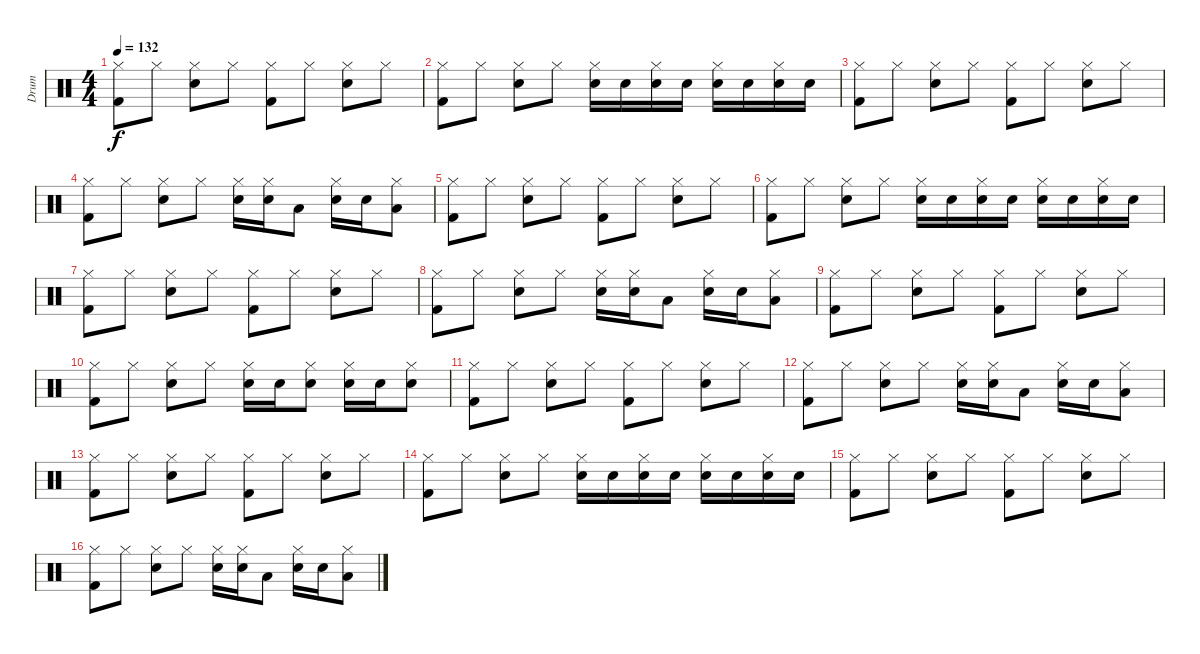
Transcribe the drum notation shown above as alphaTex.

\track ("Drum" "Drum") {instrument percussion}
\staff {score}
\articulation defaults
\ts (4 4)
\tempo 132
\clef neutral
\ks c
("Hi-Hat (closed)" "Kick (hit) 2").8{dy f} "Hi-Hat (closed)".8 ("Hi-Hat (closed)" "Electric Snare (hit)").8 "Hi-Hat (closed)".8 ("Hi-Hat (closed)" "Kick (hit) 2").8 "Hi-Hat (closed)".8 ("Hi-Hat (closed)" "Electric Snare (hit)").8 "Hi-Hat (closed)".8 |
("Hi-Hat (closed)" "Kick (hit) 2").8 "Hi-Hat (closed)".8 ("Hi-Hat (closed)" "Electric Snare (hit)").8 "Hi-Hat (closed)".8 ("Hi-Hat (closed)" "Electric Snare (hit)").16 "Electric Snare (hit)".16 ("Hi-Hat (closed)" "Electric Snare (hit)").16 "Electric Snare (hit)".16 ("Hi-Hat (closed)" "Electric Snare (hit)").16 "Electric Snare (hit)".16 ("Hi-Hat (closed)" "Electric Snare (hit)").16 "Electric Snare (hit)".16 |
("Hi-Hat (closed)" "Kick (hit) 2").8 "Hi-Hat (closed)".8 ("Hi-Hat (closed)" "Electric Snare (hit)").8 "Hi-Hat (closed)".8 ("Hi-Hat (closed)" "Kick (hit) 2").8 "Hi-Hat (closed)".8 ("Hi-Hat (closed)" "Electric Snare (hit)").8 "Hi-Hat (closed)".8 |
("Hi-Hat (closed)" "Kick (hit) 2").8 "Hi-Hat (closed)".8 ("Hi-Hat (closed)" "Electric Snare (hit)").8 "Hi-Hat (closed)".8 ("Hi-Hat (closed)" "Electric Snare (hit)").16 ("Hi-Hat (closed)" "Electric Snare (hit)").16 "Low Floor Tom (hit)".8 ("Hi-Hat (closed)" "Electric Snare (hit)").16 "Electric Snare (hit)".16 ("Hi-Hat (closed)" "Low Tom (hit)").8 |
("Hi-Hat (closed)" "Kick (hit) 2").8 "Hi-Hat (closed)".8 ("Hi-Hat (closed)" "Electric Snare (hit)").8 "Hi-Hat (closed)".8 ("Hi-Hat (closed)" "Kick (hit) 2").8 "Hi-Hat (closed)".8 ("Hi-Hat (closed)" "Electric Snare (hit)").8 "Hi-Hat (closed)".8 |
("Hi-Hat (closed)" "Kick (hit) 2").8 "Hi-Hat (closed)".8 ("Hi-Hat (closed)" "Electric Snare (hit)").8 "Hi-Hat (closed)".8 ("Hi-Hat (closed)" "Electric Snare (hit)").16 "Electric Snare (hit)".16 ("Hi-Hat (closed)" "Electric Snare (hit)").16 "Electric Snare (hit)".16 ("Hi-Hat (closed)" "Electric Snare (hit)").16 "Electric Snare (hit)".16 ("Hi-Hat (closed)" "Electric Snare (hit)").16 "Electric Snare (hit)".16 |
("Hi-Hat (closed)" "Kick (hit) 2").8 "Hi-Hat (closed)".8 ("Hi-Hat (closed)" "Electric Snare (hit)").8 "Hi-Hat (closed)".8 ("Hi-Hat (closed)" "Kick (hit) 2").8 "Hi-Hat (closed)".8 ("Hi-Hat (closed)" "Electric Snare (hit)").8 "Hi-Hat (closed)".8 |
("Hi-Hat (closed)" "Kick (hit) 2").8 "Hi-Hat (closed)".8 ("Hi-Hat (closed)" "Electric Snare (hit)").8 "Hi-Hat (closed)".8 ("Hi-Hat (closed)" "Electric Snare (hit)").16 ("Hi-Hat (closed)" "Electric Snare (hit)").16 "Low Floor Tom (hit)".8 ("Hi-Hat (closed)" "Electric Snare (hit)").16 "Electric Snare (hit)".16 ("Hi-Hat (closed)" "Low Tom (hit)").8 |
("Hi-Hat (closed)" "Kick (hit) 2").8 "Hi-Hat (closed)".8 ("Hi-Hat (closed)" "Electric Snare (hit)").8 "Hi-Hat (closed)".8 ("Hi-Hat (closed)" "Kick (hit) 2").8 "Hi-Hat (closed)".8 ("Hi-Hat (closed)" "Electric Snare (hit)").8 "Hi-Hat (closed)".8 |
("Hi-Hat (closed)" "Kick (hit) 2").8 "Hi-Hat (closed)".8 ("Hi-Hat (closed)" "Electric Snare (hit)").8 "Hi-Hat (closed)".8 ("Hi-Hat (closed)" "Electric Snare (hit)").16 "Electric Snare (hit)".16 ("Hi-Hat (closed)" "Electric Snare (hit)").8 ("Hi-Hat (closed)" "Electric Snare (hit)").16 "Electric Snare (hit)".16 ("Hi-Hat (closed)" "Electric Snare (hit)").8 |
("Hi-Hat (closed)" "Kick (hit) 2").8 "Hi-Hat (closed)".8 ("Hi-Hat (closed)" "Electric Snare (hit)").8 "Hi-Hat (closed)".8 ("Hi-Hat (closed)" "Kick (hit) 2").8 "Hi-Hat (closed)".8 ("Hi-Hat (closed)" "Electric Snare (hit)").8 "Hi-Hat (closed)".8 |
("Hi-Hat (closed)" "Kick (hit) 2").8 "Hi-Hat (closed)".8 ("Hi-Hat (closed)" "Electric Snare (hit)").8 "Hi-Hat (closed)".8 ("Hi-Hat (closed)" "Electric Snare (hit)").16 ("Hi-Hat (closed)" "Electric Snare (hit)").16 "Low Floor Tom (hit)".8 ("Hi-Hat (closed)" "Electric Snare (hit)").16 "Electric Snare (hit)".16 ("Hi-Hat (closed)" "Low Tom (hit)").8 |
("Hi-Hat (closed)" "Kick (hit) 2").8 "Hi-Hat (closed)".8 ("Hi-Hat (closed)" "Electric Snare (hit)").8 "Hi-Hat (closed)".8 ("Hi-Hat (closed)" "Kick (hit) 2").8 "Hi-Hat (closed)".8 ("Hi-Hat (closed)" "Electric Snare (hit)").8 "Hi-Hat (closed)".8 |
("Hi-Hat (closed)" "Kick (hit) 2").8 "Hi-Hat (closed)".8 ("Hi-Hat (closed)" "Electric Snare (hit)").8 "Hi-Hat (closed)".8 ("Hi-Hat (closed)" "Electric Snare (hit)").16 "Electric Snare (hit)".16 ("Hi-Hat (closed)" "Electric Snare (hit)").16 "Electric Snare (hit)".16 ("Hi-Hat (closed)" "Electric Snare (hit)").16 "Electric Snare (hit)".16 ("Hi-Hat (closed)" "Electric Snare (hit)").16 "Electric Snare (hit)".16 |
("Hi-Hat (closed)" "Kick (hit) 2").8 "Hi-Hat (closed)".8 ("Hi-Hat (closed)" "Electric Snare (hit)").8 "Hi-Hat (closed)".8 ("Hi-Hat (closed)" "Kick (hit) 2").8 "Hi-Hat (closed)".8 ("Hi-Hat (closed)" "Electric Snare (hit)").8 "Hi-Hat (closed)".8 |
("Hi-Hat (closed)" "Kick (hit) 2").8 "Hi-Hat (closed)".8 ("Hi-Hat (closed)" "Electric Snare (hit)").8 "Hi-Hat (closed)".8 ("Hi-Hat (closed)" "Electric Snare (hit)").16 ("Hi-Hat (closed)" "Electric Snare (hit)").16 "Low Floor Tom (hit)".8 ("Hi-Hat (closed)" "Electric Snare (hit)").16 "Electric Snare (hit)".16 ("Hi-Hat (closed)" "Low Tom (hit)").8
